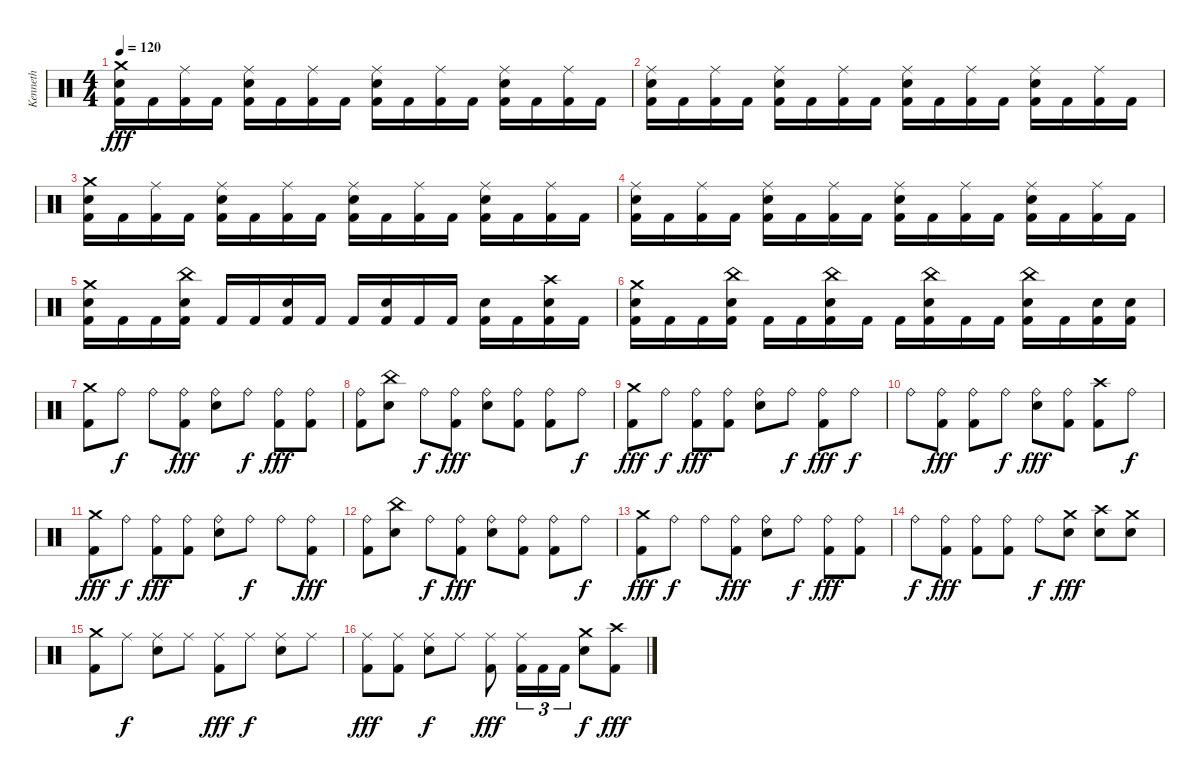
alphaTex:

\track ("Kenneth" "Kenneth") {instrument percussion}
\staff {score}
\articulation defaults
\ts (4 4)
\tempo 120
\clef neutral
\ks c
("Crash medium (hit)" "Snare (hit) 2" "Kick (hit) 2").16{dy fff} "Kick (hit) 2".16 ("Ride (middle)" "Kick (hit) 2").16 "Kick (hit) 2".16 ("Ride (middle)" "Snare (hit) 2" "Kick (hit) 2").16 "Kick (hit) 2".16 ("Ride (middle)" "Kick (hit) 2").16 "Kick (hit) 2".16 ("Ride (middle)" "Snare (hit) 2" "Kick (hit) 2").16 "Kick (hit) 2".16 ("Ride (middle)" "Kick (hit) 2").16 "Kick (hit) 2".16 ("Ride (middle)" "Snare (hit) 2" "Kick (hit) 2").16 "Kick (hit) 2".16 ("Ride (middle)" "Kick (hit) 2").16 "Kick (hit) 2".16 |
("Ride (middle)" "Snare (hit) 2" "Kick (hit) 2").16 "Kick (hit) 2".16 ("Ride (middle)" "Kick (hit) 2").16 "Kick (hit) 2".16 ("Ride (middle)" "Snare (hit) 2" "Kick (hit) 2").16 "Kick (hit) 2".16 ("Ride (middle)" "Kick (hit) 2").16 "Kick (hit) 2".16 ("Ride (middle)" "Snare (hit) 2" "Kick (hit) 2").16 "Kick (hit) 2".16 ("Ride (middle)" "Kick (hit) 2").16 "Kick (hit) 2".16 ("Ride (middle)" "Snare (hit) 2" "Kick (hit) 2").16 "Kick (hit) 2".16 ("Ride (middle)" "Kick (hit) 2").16 "Kick (hit) 2".16 |
("Crash medium (hit)" "Snare (hit) 2" "Kick (hit) 2").16 "Kick (hit) 2".16 ("Ride (middle)" "Kick (hit) 2").16 "Kick (hit) 2".16 ("Ride (middle)" "Snare (hit) 2" "Kick (hit) 2").16 "Kick (hit) 2".16 ("Ride (middle)" "Kick (hit) 2").16 "Kick (hit) 2".16 ("Ride (middle)" "Snare (hit) 2" "Kick (hit) 2").16 "Kick (hit) 2".16 ("Ride (middle)" "Kick (hit) 2").16 "Kick (hit) 2".16 ("Ride (middle)" "Snare (hit) 2" "Kick (hit) 2").16 "Kick (hit) 2".16 ("Ride (middle)" "Kick (hit) 2").16 "Kick (hit) 2".16 |
("Ride (middle)" "Snare (hit) 2" "Kick (hit) 2").16 "Kick (hit) 2".16 ("Ride (middle)" "Kick (hit) 2").16 "Kick (hit) 2".16 ("Ride (middle)" "Snare (hit) 2" "Kick (hit) 2").16 "Kick (hit) 2".16 ("Ride (middle)" "Kick (hit) 2").16 "Kick (hit) 2".16 ("Ride (middle)" "Snare (hit) 2" "Kick (hit) 2").16 "Kick (hit) 2".16 ("Ride (middle)" "Kick (hit) 2").16 "Kick (hit) 2".16 ("Ride (middle)" "Snare (hit) 2" "Kick (hit) 2").16 "Kick (hit) 2".16 ("Ride (middle)" "Kick (hit) 2").16 "Kick (hit) 2".16 |
("Crash medium (hit)" "Snare (hit) 2" "Kick (hit) 2").16 "Kick (hit) 2".16 "Kick (hit) 2".16 ("China (hit)" "Snare (hit) 2" "Kick (hit) 2").16 "Kick (hit) 2".16 "Kick (hit) 2".16 ("Snare (hit) 2" "Kick (hit) 2").16 "Kick (hit) 2".16 "Kick (hit) 2".16 ("Snare (hit) 2" "Kick (hit) 2").16 "Kick (hit) 2".16 "Kick (hit) 2".16 ("Snare (hit) 2" "Kick (hit) 2").16 "Kick (hit) 2".16 ("Crash high (hit)" "Snare (hit) 2" "Kick (hit) 2").16 "Kick (hit) 2".16 |
("Crash medium (hit)" "Snare (hit) 2" "Kick (hit) 2").16 "Kick (hit) 2".16 "Kick (hit) 2".16 ("China (hit)" "Snare (hit) 2" "Kick (hit) 2").16 "Kick (hit) 2".16 "Kick (hit) 2".16 ("China (hit)" "Snare (hit) 2" "Kick (hit) 2").16 "Kick (hit) 2".16 "Kick (hit) 2".16 ("China (hit)" "Snare (hit) 2" "Kick (hit) 2").16 "Kick (hit) 2".16 "Kick (hit) 2".16 ("China (hit)" "Snare (hit) 2" "Kick (hit) 2").16 "Kick (hit) 2".16 ("Snare (hit) 2" "Kick (hit) 2").16 ("Snare (hit) 2" "Kick (hit) 2").16 |
("Crash medium (hit)" "Kick (hit) 2").8 "Ride (bell)".8{dy f} "Ride (bell)".8 ("Ride (bell)" "Kick (hit) 2").8{dy fff} ("Ride (bell)" "Snare (hit) 2").8 "Ride (bell)".8{dy f} ("Ride (bell)" "Kick (hit) 2").8{dy fff} ("Ride (bell)" "Kick (hit) 2").8 |
("Ride (bell)" "Kick (hit) 2").8 ("China (hit)" "Snare (hit) 2").8 "Ride (bell)".8{dy f} ("Ride (bell)" "Kick (hit) 2").8{dy fff} ("Ride (bell)" "Snare (hit) 2").8 ("Ride (bell)" "Kick (hit) 2").8 ("Ride (bell)" "Kick (hit) 2").8 "Ride (bell)".8{dy f} |
("Crash medium (hit)" "Kick (hit) 2").8{dy fff} "Ride (bell)".8{dy f} ("Ride (bell)" "Kick (hit) 2").8{dy fff} ("Ride (bell)" "Kick (hit) 2").8 ("Ride (bell)" "Snare (hit) 2").8 "Ride (bell)".8{dy f} ("Ride (bell)" "Kick (hit) 2").8{dy fff} "Ride (bell)".8{dy f} |
"Ride (bell)".8 ("Ride (bell)" "Kick (hit) 2").8{dy fff} ("Ride (bell)" "Kick (hit) 2").8 "Ride (bell)".8{dy f} ("Ride (bell)" "Snare (hit) 2").8{dy fff} ("Ride (bell)" "Kick (hit) 2").8 ("Crash high (hit)" "Kick (hit) 2").8 "Ride (bell)".8{dy f} |
("Crash medium (hit)" "Kick (hit) 2").8{dy fff} "Ride (bell)".8{dy f} ("Ride (bell)" "Kick (hit) 2").8{dy fff} ("Ride (bell)" "Kick (hit) 2").8 ("Ride (bell)" "Snare (hit) 2").8 "Ride (bell)".8{dy f} "Ride (bell)".8 ("Ride (bell)" "Kick (hit) 2").8{dy fff} |
("Ride (bell)" "Kick (hit) 2").8 ("China (hit)" "Snare (hit) 2").8 "Ride (bell)".8{dy f} ("Ride (bell)" "Kick (hit) 2").8{dy fff} ("Ride (bell)" "Snare (hit) 2").8 ("Ride (bell)" "Kick (hit) 2").8 ("Ride (bell)" "Kick (hit) 2").8 "Ride (bell)".8{dy f} |
("Crash medium (hit)" "Kick (hit) 2").8{dy fff} "Ride (bell)".8{dy f} "Ride (bell)".8 ("Ride (bell)" "Kick (hit) 2").8{dy fff} ("Ride (bell)" "Snare (hit) 2").8 "Ride (bell)".8{dy f} ("Ride (bell)" "Kick (hit) 2").8{dy fff} ("Ride (bell)" "Kick (hit) 2").8 |
"Ride (bell)".8{dy f} ("Ride (bell)" "Kick (hit) 2").8{dy fff} ("Ride (bell)" "Kick (hit) 2").8 ("Ride (bell)" "Kick (hit) 2").8 "Ride (bell)".8{dy f} ("Crash medium (hit)" "Snare (hit) 2").8{dy fff} ("Crash high (hit)" "Snare (hit) 2").8 ("Crash medium (hit)" "Snare (hit) 2").8 |
("Crash medium (hit)" "Kick (hit) 2").8 "Ride (middle)".8{dy f} ("Ride (middle)" "Snare (hit) 2").8 "Ride (middle)".8 ("Ride (middle)" "Kick (hit) 2").8{dy fff} "Ride (middle)".8{dy f} ("Ride (middle)" "Snare (hit) 2").8 "Ride (middle)".8 |
("Ride (middle)" "Kick (hit) 2").8{dy fff} ("Ride (middle)" "Kick (hit) 2").8 ("Ride (middle)" "Snare (hit) 2").8{dy f} "Ride (middle)".8 ("Ride (middle)" "Kick (hit) 2").8{dy fff} ("Ride (middle)" "Kick (hit) 2").16{tu (3 2)} "Kick (hit) 2".16{tu (3 2)} "Kick (hit) 2".16{tu (3 2)} ("Crash medium (hit)" "Snare (hit) 2").8{dy f} ("Crash high (hit)" "Kick (hit) 2").8{dy fff}
